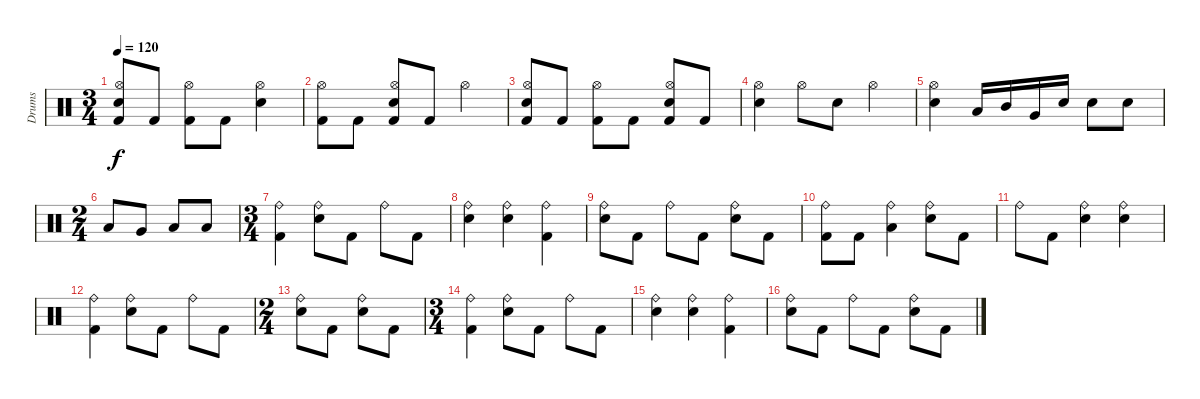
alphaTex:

\track ("Drums" "Drums") {instrument percussion}
\staff {score}
\articulation defaults
\ts (3 4)
\tempo 120
\clef neutral
\ks c
("Electric Snare (hit)" "Hi-Hat (open)" "Kick (hit) 2").8{dy f} "Kick (hit) 2".8 ("Hi-Hat (open)" "Kick (hit) 2").8 "Kick (hit) 2".8 ("Electric Snare (hit)" "Hi-Hat (open)").4 |
("Hi-Hat (open)" "Kick (hit) 2").8 "Kick (hit) 2".8 ("Electric Snare (hit)" "Hi-Hat (open)" "Kick (hit) 2").8 "Kick (hit) 2".8 "Hi-Hat (open)".4 |
("Electric Snare (hit)" "Hi-Hat (open)" "Kick (hit) 2").8 "Kick (hit) 2".8 ("Hi-Hat (open)" "Kick (hit) 2").8 "Kick (hit) 2".8 ("Electric Snare (hit)" "Hi-Hat (open)" "Kick (hit) 2").8 "Kick (hit) 2".8 |
("Electric Snare (hit)" "Hi-Hat (open)").4 "Hi-Hat (open)".8 "Electric Snare (hit)".8 "Hi-Hat (open)".4 |
("Electric Snare (hit)" "Hi-Hat (open)").4 "Low Tom (hit)".16 "Mid Tom (hit)".16 "Very Low Tom (hit)".16 "Electric Snare (hit)".16 "Electric Snare (hit)".8 "Electric Snare (hit)".8 |
\ts (2 4)
"Low Floor Tom (hit)".8 "Very Low Tom (hit)".8 "Low Tom (hit)".8 "Low Tom (hit)".8 |
\ts (3 4)
("Ride (bell)" "Kick (hit) 2").4 ("Electric Snare (hit)" "Ride (bell)").8 "Kick (hit) 2".8 "Ride (bell)".8 "Kick (hit) 2".8 |
("Electric Snare (hit)" "Ride (bell)").4 ("Electric Snare (hit)" "Ride (bell)").4 ("Ride (bell)" "Kick (hit) 2").4 |
("Electric Snare (hit)" "Ride (bell)").8 "Kick (hit) 2".8 "Ride (bell)".8 "Kick (hit) 2".8 ("Electric Snare (hit)" "Ride (bell)").8 "Kick (hit) 2".8 |
("Ride (bell)" "Kick (hit) 2").8 "Kick (hit) 2".8 ("Ride (bell)" "Low Tom (hit)").4 ("Electric Snare (hit)" "Ride (bell)").8 "Kick (hit) 2".8 |
"Ride (bell)".8 "Kick (hit) 2".8 ("Electric Snare (hit)" "Ride (bell)").4 ("Electric Snare (hit)" "Ride (bell)").4 |
("Ride (bell)" "Kick (hit) 2").4 ("Electric Snare (hit)" "Ride (bell)").8 "Kick (hit) 2".8 "Ride (bell)".8 "Kick (hit) 2".8 |
\ts (2 4)
("Electric Snare (hit)" "Ride (bell)").8 "Kick (hit) 2".8 ("Electric Snare (hit)" "Ride (bell)").8 "Kick (hit) 2".8 |
\ts (3 4)
("Ride (bell)" "Kick (hit) 2").4 ("Electric Snare (hit)" "Ride (bell)").8 "Kick (hit) 2".8 "Ride (bell)".8 "Kick (hit) 2".8 |
("Electric Snare (hit)" "Ride (bell)").4 ("Electric Snare (hit)" "Ride (bell)").4 ("Ride (bell)" "Kick (hit) 2").4 |
("Electric Snare (hit)" "Ride (bell)").8 "Kick (hit) 2".8 "Ride (bell)".8 "Kick (hit) 2".8 ("Electric Snare (hit)" "Ride (bell)").8 "Kick (hit) 2".8
